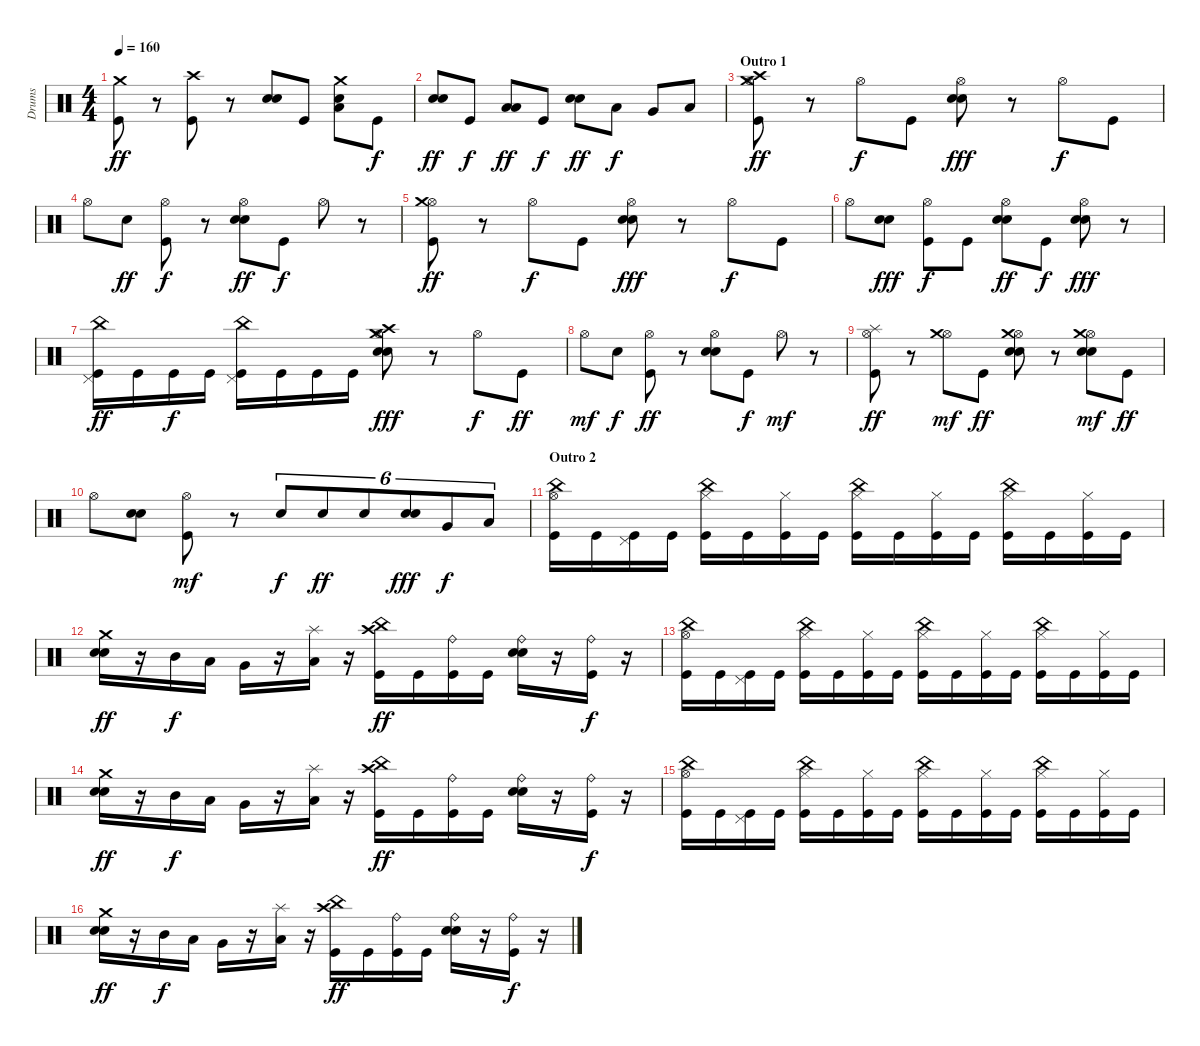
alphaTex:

\track ("Drums" "Drums") {instrument percussion}
\staff {score}
\articulation defaults
\ts (4 4)
\tempo 160
\clef neutral
\ks c
("Kick (hit)" "Crash medium (hit)").8{dy ff} r.8 ("Kick (hit)" "Crash high (hit)").8 r.8 ("Electric Snare (hit)" "Electric Snare (hit)").8 "Kick (hit)".8 ("Low Floor Tom (hit)" "Electric Snare (hit)" "Crash medium (hit)").8 "Kick (hit)".8{dy f} |
("Electric Snare (hit)" "Electric Snare (hit)").8{dy ff} "Kick (hit)".8{dy f} ("Low Floor Tom (hit)" "Low Floor Tom (hit)").8{dy ff} "Kick (hit)".8{dy f} ("Electric Snare (hit)" "Electric Snare (hit)").8{dy ff} "Low Tom (hit)".8{dy f} "Very Low Tom (hit)".8 "Low Floor Tom (hit)".8 |
\section ("" "Outro 1")
("Kick (hit)" "Hi-Hat (open)" "Crash high (hit)" "Crash medium (hit)").8{dy ff} r.8 "Hi-Hat (open)".8{dy f} "Kick (hit)".8 ("Electric Snare (hit)" "Electric Snare (hit)" "Hi-Hat (open)").8{dy fff} r.8 "Hi-Hat (open)".8{dy f} "Kick (hit)".8 |
"Hi-Hat (open)".8 "Electric Snare (hit)".8{dy ff} ("Kick (hit)" "Hi-Hat (open)").8{dy f} r.8 ("Electric Snare (hit)" "Electric Snare (hit)" "Hi-Hat (open)").8{dy ff} "Kick (hit)".8{dy f} "Hi-Hat (open)".8 r.8 |
("Kick (hit)" "Hi-Hat (open)" "Crash medium (hit)").8{dy ff} r.8 "Hi-Hat (open)".8{dy f} "Kick (hit)".8 ("Electric Snare (hit)" "Electric Snare (hit)" "Hi-Hat (open)").8{dy fff} r.8 "Hi-Hat (open)".8{dy f} "Kick (hit)".8 |
"Hi-Hat (open)".8 ("Electric Snare (hit)" "Electric Snare (hit)").8{dy fff} ("Kick (hit)" "Hi-Hat (open)").8{dy f} "Kick (hit)".8 ("Electric Snare (hit)" "Electric Snare (hit)" "Hi-Hat (open)").8{dy ff} "Kick (hit)".8{dy f} ("Electric Snare (hit)" "Electric Snare (hit)" "Hi-Hat (open)").8{dy fff} r.8 |
("Kick (hit)" "Pedal Hi-Hat (hit)" "China (hit)").16{dy ff} "Kick (hit)".16 "Kick (hit)".16{dy f} "Kick (hit)".16 ("Kick (hit)" "Pedal Hi-Hat (hit)" "China (hit)").16 "Kick (hit)".16 "Kick (hit)".16 "Kick (hit)".16 ("Electric Snare (hit)" "Electric Snare (hit)" "Hi-Hat (open)" "Crash high (hit)" "Crash medium (hit)").8{dy fff} r.8 "Hi-Hat (open)".8{dy f} "Kick (hit)".8{dy ff} |
"Hi-Hat (open)".8{dy mf} "Electric Snare (hit)".8{dy f} ("Kick (hit)" "Hi-Hat (open)").8{dy ff} r.8 ("Electric Snare (hit)" "Electric Snare (hit)" "Hi-Hat (open)").8 "Kick (hit)".8{dy f} "Hi-Hat (open)".8{dy mf} r.8 |
("Kick (hit)" "Hi-Hat (open)" "Splash (hit)").8{dy ff} r.8 ("Hi-Hat (open)" "Crash medium (hit)").8{dy mf} "Kick (hit)".8{dy ff} ("Electric Snare (hit)" "Electric Snare (hit)" "Hi-Hat (open)" "Crash medium (hit)").8 r.8 ("Electric Snare (hit)" "Electric Snare (hit)" "Hi-Hat (open)" "Crash medium (hit)").8{dy mf} "Kick (hit)".8{dy ff} |
"Hi-Hat (open)".8 ("Electric Snare (hit)" "Electric Snare (hit)").8 ("Kick (hit)" "Hi-Hat (open)").8{dy mf} r.8 "Electric Snare (hit)".8{tu (6 4) dy f} "Electric Snare (hit)".8{tu (6 4) dy ff} "Electric Snare (hit)".8{tu (6 4)} ("Electric Snare (hit)" "Electric Snare (hit)").8{tu (6 4) dy fff} "Very Low Tom (hit)".8{tu (6 4) dy f} "Low Floor Tom (hit)".8{tu (6 4)} |
\section ("" "Outro 2")
("Kick (hit)" "Hi-Hat (open)" "China (hit)").16 "Kick (hit)".16 ("Kick (hit)" "Pedal Hi-Hat (hit)").16 "Kick (hit)".16 ("Kick (hit)" "Hi-Hat (closed)" "China (hit)").16 "Kick (hit)".16 ("Kick (hit)" "Hi-Hat (closed)").16 "Kick (hit)".16 ("Kick (hit)" "Hi-Hat (closed)" "China (hit)").16 "Kick (hit)".16 ("Kick (hit)" "Hi-Hat (closed)").16 "Kick (hit)".16 ("Kick (hit)" "Hi-Hat (closed)" "China (hit)").16 "Kick (hit)".16 ("Kick (hit)" "Hi-Hat (closed)").16 "Kick (hit)".16 |
("Electric Snare (hit)" "Electric Snare (hit)" "Crash medium (hit)").16{dy ff} r.16 "Mid Tom (hit)".16{dy f} "Low Tom (hit)".16 "Very Low Tom (hit)".16 r.16 ("Low Floor Tom (hit)" "Splash (hit)").16 r.16 ("Kick (hit)" "China (hit)" "Crash high (hit)").16{dy ff} "Kick (hit)".16 ("Kick (hit)" "Ride (bell)").16 "Kick (hit)".16 ("Electric Snare (hit)" "Electric Snare (hit)" "Ride (bell)").16 r.16 ("Kick (hit)" "Ride (bell)").16{dy f} r.16 |
("Kick (hit)" "Hi-Hat (open)" "China (hit)").16 "Kick (hit)".16 ("Kick (hit)" "Pedal Hi-Hat (hit)").16 "Kick (hit)".16 ("Kick (hit)" "Hi-Hat (closed)" "China (hit)").16 "Kick (hit)".16 ("Kick (hit)" "Hi-Hat (closed)").16 "Kick (hit)".16 ("Kick (hit)" "Hi-Hat (closed)" "China (hit)").16 "Kick (hit)".16 ("Kick (hit)" "Hi-Hat (closed)").16 "Kick (hit)".16 ("Kick (hit)" "Hi-Hat (closed)" "China (hit)").16 "Kick (hit)".16 ("Kick (hit)" "Hi-Hat (closed)").16 "Kick (hit)".16 |
("Electric Snare (hit)" "Electric Snare (hit)" "Crash medium (hit)").16{dy ff} r.16 "Mid Tom (hit)".16{dy f} "Low Tom (hit)".16 "Very Low Tom (hit)".16 r.16 ("Low Floor Tom (hit)" "Splash (hit)").16 r.16 ("Kick (hit)" "China (hit)" "Crash high (hit)").16{dy ff} "Kick (hit)".16 ("Kick (hit)" "Ride (bell)").16 "Kick (hit)".16 ("Electric Snare (hit)" "Electric Snare (hit)" "Ride (bell)").16 r.16 ("Kick (hit)" "Ride (bell)").16{dy f} r.16 |
("Kick (hit)" "Hi-Hat (open)" "China (hit)").16 "Kick (hit)".16 ("Kick (hit)" "Pedal Hi-Hat (hit)").16 "Kick (hit)".16 ("Kick (hit)" "Hi-Hat (closed)" "China (hit)").16 "Kick (hit)".16 ("Kick (hit)" "Hi-Hat (closed)").16 "Kick (hit)".16 ("Kick (hit)" "Hi-Hat (closed)" "China (hit)").16 "Kick (hit)".16 ("Kick (hit)" "Hi-Hat (closed)").16 "Kick (hit)".16 ("Kick (hit)" "Hi-Hat (closed)" "China (hit)").16 "Kick (hit)".16 ("Kick (hit)" "Hi-Hat (closed)").16 "Kick (hit)".16 |
("Electric Snare (hit)" "Electric Snare (hit)" "Crash medium (hit)").16{dy ff} r.16 "Mid Tom (hit)".16{dy f} "Low Tom (hit)".16 "Very Low Tom (hit)".16 r.16 ("Low Floor Tom (hit)" "Splash (hit)").16 r.16 ("Kick (hit)" "China (hit)" "Crash high (hit)").16{dy ff} "Kick (hit)".16 ("Kick (hit)" "Ride (bell)").16 "Kick (hit)".16 ("Electric Snare (hit)" "Electric Snare (hit)" "Ride (bell)").16 r.16 ("Kick (hit)" "Ride (bell)").16{dy f} r.16
